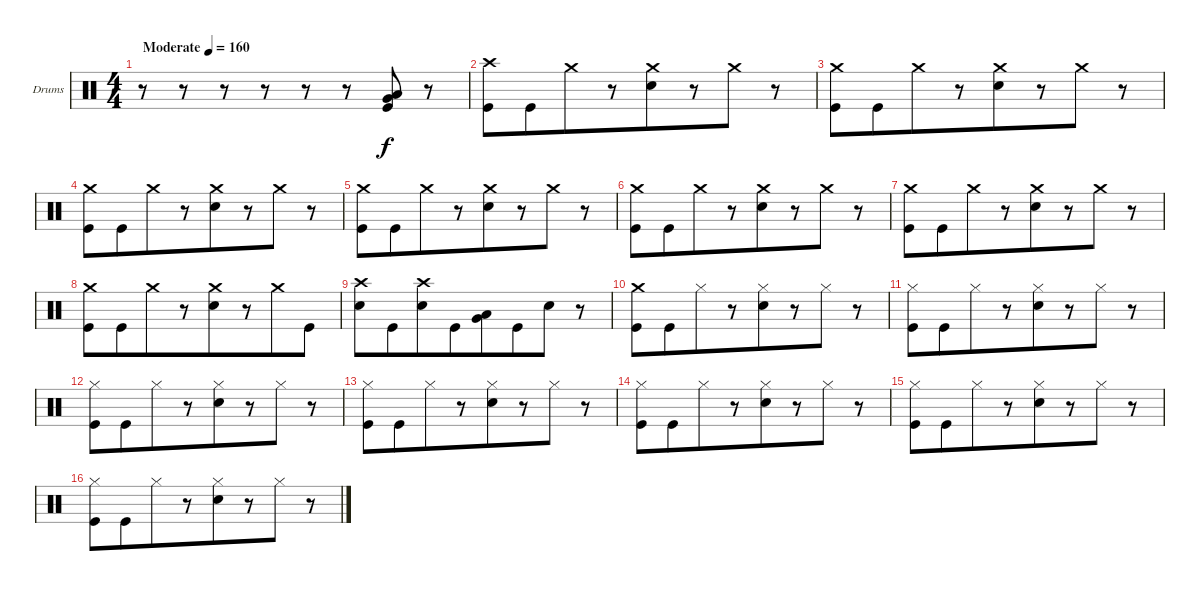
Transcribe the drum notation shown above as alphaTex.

\bracketExtendMode groupsimilarinstruments
\firstSystemTrackNameOrientation horizontal
\otherSystemsTrackNameOrientation horizontal
\track ("Drumkit" "Drums") {instrument percussion}
\staff {score}
\articulation defaults
\ts (4 4)
\beaming (8 8)
\tempo (160 "Moderate")
\clef neutral
\ks c
r.8{dy f} r.8 r.8 r.8 r.8 r.8 ("Very Low Tom (hit)" "Low Tom (hit)" "Kick (hit)").8 r.8 |
("Crash high (hit)" "Kick (hit)").8 "Kick (hit)".8 "Crash medium (hit)".8 r.8 ("Crash medium (hit)" "Snare (hit) 2").8 r.8 "Crash medium (hit)".8 r.8 |
("Crash medium (hit)" "Kick (hit)").8 "Kick (hit)".8 "Crash medium (hit)".8 r.8 ("Crash medium (hit)" "Snare (hit) 2").8 r.8 "Crash medium (hit)".8 r.8 |
("Crash medium (hit)" "Kick (hit)").8 "Kick (hit)".8 "Crash medium (hit)".8 r.8 ("Crash medium (hit)" "Snare (hit) 2").8 r.8 "Crash medium (hit)".8 r.8 |
("Crash medium (hit)" "Kick (hit)").8 "Kick (hit)".8 "Crash medium (hit)".8 r.8 ("Crash medium (hit)" "Snare (hit) 2").8 r.8 "Crash medium (hit)".8 r.8 |
("Crash medium (hit)" "Kick (hit)").8 "Kick (hit)".8 "Crash medium (hit)".8 r.8 ("Crash medium (hit)" "Snare (hit) 2").8 r.8 "Crash medium (hit)".8 r.8 |
("Crash medium (hit)" "Kick (hit)").8 "Kick (hit)".8 "Crash medium (hit)".8 r.8 ("Crash medium (hit)" "Snare (hit) 2").8 r.8 "Crash medium (hit)".8 r.8 |
("Crash medium (hit)" "Kick (hit)").8 "Kick (hit)".8 "Crash medium (hit)".8 r.8 ("Crash medium (hit)" "Snare (hit) 2").8 r.8 "Crash medium (hit)".8 "Kick (hit)".8 |
("Crash high (hit)" "Snare (hit) 2").8 "Kick (hit)".8 ("Crash high (hit)" "Snare (hit) 2").8 "Kick (hit)".8 ("Very Low Tom (hit)" "Low Tom (hit)").8 "Kick (hit)".8 "Snare (hit) 2".8 r.8 |
("Crash medium (hit)" "Kick (hit)").8 "Kick (hit)".8 "Hi-Hat (closed)".8 r.8 ("Hi-Hat (closed)" "Snare (hit) 2").8 r.8 "Hi-Hat (closed)".8 r.8 |
("Hi-Hat (closed)" "Kick (hit)").8 "Kick (hit)".8 "Hi-Hat (closed)".8 r.8 ("Hi-Hat (closed)" "Snare (hit) 2").8 r.8 "Hi-Hat (closed)".8 r.8 |
("Hi-Hat (closed)" "Kick (hit)").8 "Kick (hit)".8 "Hi-Hat (closed)".8 r.8 ("Hi-Hat (closed)" "Snare (hit) 2").8 r.8 "Hi-Hat (closed)".8 r.8 |
("Hi-Hat (closed)" "Kick (hit)").8 "Kick (hit)".8 "Hi-Hat (closed)".8 r.8 ("Hi-Hat (closed)" "Snare (hit) 2").8 r.8 "Hi-Hat (closed)".8 r.8 |
("Hi-Hat (closed)" "Kick (hit)").8 "Kick (hit)".8 "Hi-Hat (closed)".8 r.8 ("Hi-Hat (closed)" "Snare (hit) 2").8 r.8 "Hi-Hat (closed)".8 r.8 |
("Hi-Hat (closed)" "Kick (hit)").8 "Kick (hit)".8 "Hi-Hat (closed)".8 r.8 ("Hi-Hat (closed)" "Snare (hit) 2").8 r.8 "Hi-Hat (closed)".8 r.8 |
("Hi-Hat (closed)" "Kick (hit)").8 "Kick (hit)".8 "Hi-Hat (closed)".8 r.8 ("Hi-Hat (closed)" "Snare (hit) 2").8 r.8 "Hi-Hat (closed)".8 r.8
